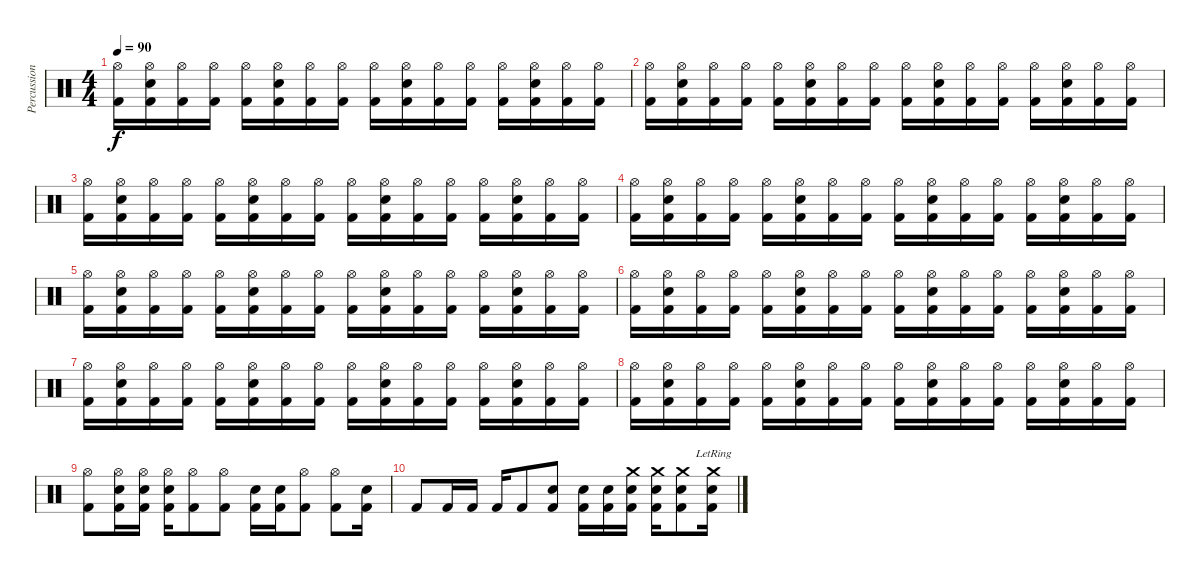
\track ("Percussion" "Percussion") {instrument percussion}
\staff {score}
\articulation defaults
\ts (4 4)
\tempo 90
\clef neutral
\ks c
("Hi-Hat (open)" "Kick (hit) 2").16{dy f} ("Hi-Hat (open)" "Snare (hit) 2" "Kick (hit) 2").16 ("Hi-Hat (open)" "Kick (hit) 2").16 ("Hi-Hat (open)" "Kick (hit) 2").16 ("Hi-Hat (open)" "Kick (hit) 2").16 ("Hi-Hat (open)" "Snare (hit) 2" "Kick (hit) 2").16 ("Hi-Hat (open)" "Kick (hit) 2").16 ("Hi-Hat (open)" "Kick (hit) 2").16 ("Hi-Hat (open)" "Kick (hit) 2").16 ("Hi-Hat (open)" "Snare (hit) 2" "Kick (hit) 2").16 ("Hi-Hat (open)" "Kick (hit) 2").16 ("Hi-Hat (open)" "Kick (hit) 2").16 ("Hi-Hat (open)" "Kick (hit) 2").16 ("Hi-Hat (open)" "Snare (hit) 2" "Kick (hit) 2").16 ("Hi-Hat (open)" "Kick (hit) 2").16 ("Hi-Hat (open)" "Kick (hit) 2").16 |
("Hi-Hat (open)" "Kick (hit) 2").16 ("Hi-Hat (open)" "Snare (hit) 2" "Kick (hit) 2").16 ("Hi-Hat (open)" "Kick (hit) 2").16 ("Hi-Hat (open)" "Kick (hit) 2").16 ("Hi-Hat (open)" "Kick (hit) 2").16 ("Hi-Hat (open)" "Snare (hit) 2" "Kick (hit) 2").16 ("Hi-Hat (open)" "Kick (hit) 2").16 ("Hi-Hat (open)" "Kick (hit) 2").16 ("Hi-Hat (open)" "Kick (hit) 2").16 ("Hi-Hat (open)" "Snare (hit) 2" "Kick (hit) 2").16 ("Hi-Hat (open)" "Kick (hit) 2").16 ("Hi-Hat (open)" "Kick (hit) 2").16 ("Hi-Hat (open)" "Kick (hit) 2").16 ("Hi-Hat (open)" "Snare (hit) 2" "Kick (hit) 2").16 ("Hi-Hat (open)" "Kick (hit) 2").16 ("Hi-Hat (open)" "Kick (hit) 2").16 |
("Hi-Hat (open)" "Kick (hit) 2").16 ("Hi-Hat (open)" "Snare (hit) 2" "Kick (hit) 2").16 ("Hi-Hat (open)" "Kick (hit) 2").16 ("Hi-Hat (open)" "Kick (hit) 2").16 ("Hi-Hat (open)" "Kick (hit) 2").16 ("Hi-Hat (open)" "Snare (hit) 2" "Kick (hit) 2").16 ("Hi-Hat (open)" "Kick (hit) 2").16 ("Hi-Hat (open)" "Kick (hit) 2").16 ("Hi-Hat (open)" "Kick (hit) 2").16 ("Hi-Hat (open)" "Snare (hit) 2" "Kick (hit) 2").16 ("Hi-Hat (open)" "Kick (hit) 2").16 ("Hi-Hat (open)" "Kick (hit) 2").16 ("Hi-Hat (open)" "Kick (hit) 2").16 ("Hi-Hat (open)" "Snare (hit) 2" "Kick (hit) 2").16 ("Hi-Hat (open)" "Kick (hit) 2").16 ("Hi-Hat (open)" "Kick (hit) 2").16 |
("Hi-Hat (open)" "Kick (hit) 2").16 ("Hi-Hat (open)" "Snare (hit) 2" "Kick (hit) 2").16 ("Hi-Hat (open)" "Kick (hit) 2").16 ("Hi-Hat (open)" "Kick (hit) 2").16 ("Hi-Hat (open)" "Kick (hit) 2").16 ("Hi-Hat (open)" "Snare (hit) 2" "Kick (hit) 2").16 ("Hi-Hat (open)" "Kick (hit) 2").16 ("Hi-Hat (open)" "Kick (hit) 2").16 ("Hi-Hat (open)" "Kick (hit) 2").16 ("Hi-Hat (open)" "Snare (hit) 2" "Kick (hit) 2").16 ("Hi-Hat (open)" "Kick (hit) 2").16 ("Hi-Hat (open)" "Kick (hit) 2").16 ("Hi-Hat (open)" "Kick (hit) 2").16 ("Hi-Hat (open)" "Snare (hit) 2" "Kick (hit) 2").16 ("Hi-Hat (open)" "Kick (hit) 2").16 ("Hi-Hat (open)" "Kick (hit) 2").16 |
("Hi-Hat (open)" "Kick (hit) 2").16 ("Hi-Hat (open)" "Snare (hit) 2" "Kick (hit) 2").16 ("Hi-Hat (open)" "Kick (hit) 2").16 ("Hi-Hat (open)" "Kick (hit) 2").16 ("Hi-Hat (open)" "Kick (hit) 2").16 ("Hi-Hat (open)" "Snare (hit) 2" "Kick (hit) 2").16 ("Hi-Hat (open)" "Kick (hit) 2").16 ("Hi-Hat (open)" "Kick (hit) 2").16 ("Hi-Hat (open)" "Kick (hit) 2").16 ("Hi-Hat (open)" "Snare (hit) 2" "Kick (hit) 2").16 ("Hi-Hat (open)" "Kick (hit) 2").16 ("Hi-Hat (open)" "Kick (hit) 2").16 ("Hi-Hat (open)" "Kick (hit) 2").16 ("Hi-Hat (open)" "Snare (hit) 2" "Kick (hit) 2").16 ("Hi-Hat (open)" "Kick (hit) 2").16 ("Hi-Hat (open)" "Kick (hit) 2").16 |
("Hi-Hat (open)" "Kick (hit) 2").16 ("Hi-Hat (open)" "Snare (hit) 2" "Kick (hit) 2").16 ("Hi-Hat (open)" "Kick (hit) 2").16 ("Hi-Hat (open)" "Kick (hit) 2").16 ("Hi-Hat (open)" "Kick (hit) 2").16 ("Hi-Hat (open)" "Snare (hit) 2" "Kick (hit) 2").16 ("Hi-Hat (open)" "Kick (hit) 2").16 ("Hi-Hat (open)" "Kick (hit) 2").16 ("Hi-Hat (open)" "Kick (hit) 2").16 ("Hi-Hat (open)" "Snare (hit) 2" "Kick (hit) 2").16 ("Hi-Hat (open)" "Kick (hit) 2").16 ("Hi-Hat (open)" "Kick (hit) 2").16 ("Hi-Hat (open)" "Kick (hit) 2").16 ("Hi-Hat (open)" "Snare (hit) 2" "Kick (hit) 2").16 ("Hi-Hat (open)" "Kick (hit) 2").16 ("Hi-Hat (open)" "Kick (hit) 2").16 |
("Hi-Hat (open)" "Kick (hit) 2").16 ("Hi-Hat (open)" "Snare (hit) 2" "Kick (hit) 2").16 ("Hi-Hat (open)" "Kick (hit) 2").16 ("Hi-Hat (open)" "Kick (hit) 2").16 ("Hi-Hat (open)" "Kick (hit) 2").16 ("Hi-Hat (open)" "Snare (hit) 2" "Kick (hit) 2").16 ("Hi-Hat (open)" "Kick (hit) 2").16 ("Hi-Hat (open)" "Kick (hit) 2").16 ("Hi-Hat (open)" "Kick (hit) 2").16 ("Hi-Hat (open)" "Snare (hit) 2" "Kick (hit) 2").16 ("Hi-Hat (open)" "Kick (hit) 2").16 ("Hi-Hat (open)" "Kick (hit) 2").16 ("Hi-Hat (open)" "Kick (hit) 2").16 ("Hi-Hat (open)" "Snare (hit) 2" "Kick (hit) 2").16 ("Hi-Hat (open)" "Kick (hit) 2").16 ("Hi-Hat (open)" "Kick (hit) 2").16 |
("Hi-Hat (open)" "Kick (hit) 2").16 ("Hi-Hat (open)" "Snare (hit) 2" "Kick (hit) 2").16 ("Hi-Hat (open)" "Kick (hit) 2").16 ("Hi-Hat (open)" "Kick (hit) 2").16 ("Hi-Hat (open)" "Kick (hit) 2").16 ("Hi-Hat (open)" "Snare (hit) 2" "Kick (hit) 2").16 ("Hi-Hat (open)" "Kick (hit) 2").16 ("Hi-Hat (open)" "Kick (hit) 2").16 ("Hi-Hat (open)" "Kick (hit) 2").16 ("Hi-Hat (open)" "Snare (hit) 2" "Kick (hit) 2").16 ("Hi-Hat (open)" "Kick (hit) 2").16 ("Hi-Hat (open)" "Kick (hit) 2").16 ("Hi-Hat (open)" "Kick (hit) 2").16 ("Hi-Hat (open)" "Snare (hit) 2" "Kick (hit) 2").16 ("Hi-Hat (open)" "Kick (hit) 2").16 ("Hi-Hat (open)" "Kick (hit) 2").16 |
("Hi-Hat (open)" "Kick (hit) 2").8 ("Hi-Hat (open)" "Snare (hit) 2" "Kick (hit) 2").16 ("Hi-Hat (open)" "Snare (hit) 2" "Kick (hit) 2").16 ("Hi-Hat (open)" "Snare (hit) 2" "Kick (hit) 2").16 ("Hi-Hat (open)" "Kick (hit) 2").8 ("Hi-Hat (open)" "Kick (hit) 2").8 ("Snare (hit) 2" "Kick (hit) 2").16 ("Snare (hit) 2" "Kick (hit) 2").16 ("Hi-Hat (open)" "Kick (hit) 2").8 ("Hi-Hat (open)" "Kick (hit) 2").8 ("Snare (hit) 2" "Kick (hit) 2").16 |
"Kick (hit) 2".8 "Kick (hit) 2".16 "Kick (hit) 2".16 "Kick (hit) 2".16 "Kick (hit) 2".8 ("Snare (hit) 2" "Kick (hit) 2").8 ("Snare (hit) 2" "Kick (hit) 2").16 ("Snare (hit) 2" "Kick (hit) 2").16 ("Crash medium (hit)" "Snare (hit) 2" "Kick (hit) 2").16 ("Crash medium (hit)" "Snare (hit) 2" "Kick (hit) 2").16 ("Crash medium (hit)" "Snare (hit) 2" "Kick (hit) 2").8 ("Crash medium (hit)"{lr} "Snare (hit) 2" "Kick (hit) 2").16
